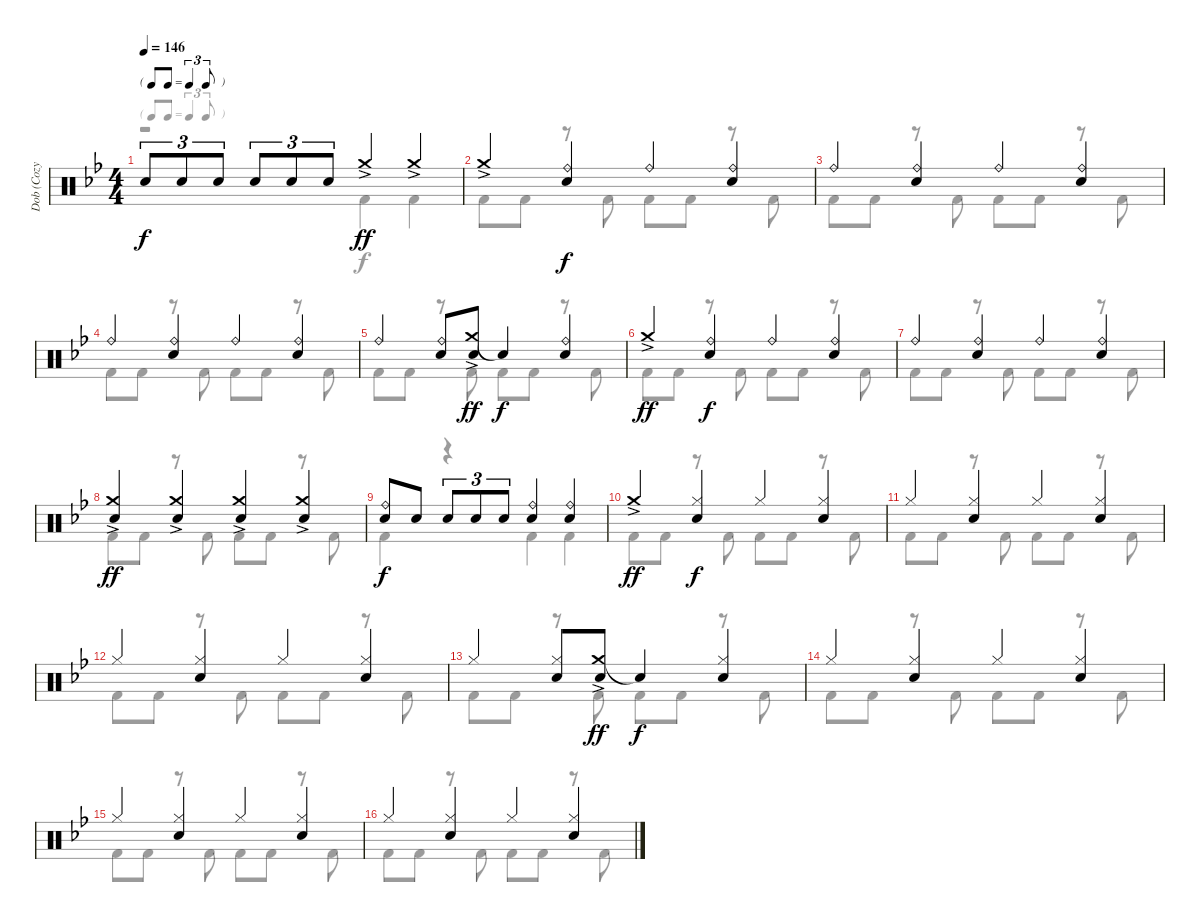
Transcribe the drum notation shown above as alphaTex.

\track ("Dob (Cozy Powell)" "Dob (Cozy ") {instrument percussion}
\staff {score}
\articulation defaults
\voice
\ts (4 4)
\tf triplet8th
\tempo 146
\clef neutral
\ks bb "Electric Snare (hit)".8{tu (3 2) dy f} "Electric Snare (hit)".8{tu (3 2)} "Electric Snare (hit)".8{tu (3 2)} "Electric Snare (hit)".8{tu (3 2)} "Electric Snare (hit)".8{tu (3 2)} "Electric Snare (hit)".8{tu (3 2)} "Crash medium (hit)"{ac}.4{dy ff} "Crash medium (hit)"{ac}.4
|
"Crash medium (hit)"{ac}.4 ("Ride (bell)" "Electric Snare (hit)").4{dy f} "Ride (bell)".4 ("Ride (bell)" "Electric Snare (hit)").4 |
"Ride (bell)".4 ("Ride (bell)" "Electric Snare (hit)").4 "Ride (bell)".4 ("Ride (bell)" "Electric Snare (hit)").4 |
"Ride (bell)".4 ("Ride (bell)" "Electric Snare (hit)").4 "Ride (bell)".4 ("Ride (bell)" "Electric Snare (hit)").4 |
"Ride (bell)".4 ("Ride (bell)" "Electric Snare (hit)").8 ("Crash medium (hit)"{ac} "Electric Snare (hit)").8{dy ff} "Snare (hit)"{t}.4{dy f} ("Ride (bell)" "Electric Snare (hit)").4 |
"Crash medium (hit)"{ac}.4{dy ff} ("Ride (bell)" "Electric Snare (hit)").4{dy f} "Ride (bell)".4 ("Ride (bell)" "Electric Snare (hit)").4 |
"Ride (bell)".4 ("Ride (bell)" "Electric Snare (hit)").4 "Ride (bell)".4 ("Ride (bell)" "Electric Snare (hit)").4 |
("Crash medium (hit)"{ac} "Electric Snare (hit)").4{dy ff} ("Crash medium (hit)"{ac} "Electric Snare (hit)").4 ("Crash medium (hit)"{ac} "Electric Snare (hit)").4 ("Crash medium (hit)"{ac} "Electric Snare (hit)").4 |
("Ride (bell)" "Electric Snare (hit)").8{dy f} "Electric Snare (hit)".8 "Electric Snare (hit)".8{tu (3 2)} "Electric Snare (hit)".8{tu (3 2)} "Electric Snare (hit)".8{tu (3 2)} ("Ride (bell)" "Electric Snare (hit)").4 ("Ride (bell)" "Electric Snare (hit)").4 |
"Crash medium (hit)"{ac}.4{dy ff} ("Hi-Hat (closed)" "Electric Snare (hit)").4{dy f} "Hi-Hat (closed)".4 ("Hi-Hat (closed)" "Electric Snare (hit)").4 |
"Hi-Hat (closed)".4 ("Hi-Hat (closed)" "Electric Snare (hit)").4 "Hi-Hat (closed)".4 ("Hi-Hat (closed)" "Electric Snare (hit)").4 |
"Hi-Hat (closed)".4 ("Hi-Hat (closed)" "Electric Snare (hit)").4 "Hi-Hat (closed)".4 ("Hi-Hat (closed)" "Electric Snare (hit)").4 |
"Hi-Hat (closed)".4 ("Hi-Hat (closed)" "Electric Snare (hit)").8 ("Crash medium (hit)"{ac} "Electric Snare (hit)").8{dy ff} "Snare (hit)"{t}.4{dy f} ("Hi-Hat (closed)" "Electric Snare (hit)").4 |
"Hi-Hat (closed)".4 ("Hi-Hat (closed)" "Electric Snare (hit)").4 "Hi-Hat (closed)".4 ("Hi-Hat (closed)" "Electric Snare (hit)").4 |
"Hi-Hat (closed)".4 ("Hi-Hat (closed)" "Electric Snare (hit)").4 "Hi-Hat (closed)".4 ("Hi-Hat (closed)" "Electric Snare (hit)").4 |
"Hi-Hat (closed)".4 ("Hi-Hat (closed)" "Electric Snare (hit)").4 "Hi-Hat (closed)".4 ("Hi-Hat (closed)" "Electric Snare (hit)").4
\voice
\clef neutral
\ottava regular
\simile none
\ks bb
r.2{dy f} "Kick (hit) 2".4 "Kick (hit) 2".4 |
"Kick (hit) 2".8 "Kick (hit) 2".8 r.8 "Kick (hit) 2".8 "Kick (hit) 2".8 "Kick (hit) 2".8 r.8 "Kick (hit) 2".8 |
"Kick (hit) 2".8 "Kick (hit) 2".8 r.8 "Kick (hit) 2".8 "Kick (hit) 2".8 "Kick (hit) 2".8 r.8 "Kick (hit) 2".8 |
"Kick (hit) 2".8 "Kick (hit) 2".8 r.8 "Kick (hit) 2".8 "Kick (hit) 2".8 "Kick (hit) 2".8 r.8 "Kick (hit) 2".8 |
"Kick (hit) 2".8 "Kick (hit) 2".8 r.8 "Kick (hit) 2".8 "Kick (hit) 2".8 "Kick (hit) 2".8 r.8 "Kick (hit) 2".8 |
"Kick (hit) 2".8 "Kick (hit) 2".8 r.8 "Kick (hit) 2".8 "Kick (hit) 2".8 "Kick (hit) 2".8 r.8 "Kick (hit) 2".8 |
"Kick (hit) 2".8 "Kick (hit) 2".8 r.8 "Kick (hit) 2".8 "Kick (hit) 2".8 "Kick (hit) 2".8 r.8 "Kick (hit) 2".8 |
"Kick (hit) 2".8 "Kick (hit) 2".8 r.8 "Kick (hit) 2".8 "Kick (hit) 2".8 "Kick (hit) 2".8 r.8 "Kick (hit) 2".8 |
"Kick (hit) 2".4 r.4 "Kick (hit) 2".4 "Kick (hit) 2".4 |
"Kick (hit) 2".8 "Kick (hit) 2".8 r.8 "Kick (hit) 2".8 "Kick (hit) 2".8 "Kick (hit) 2".8 r.8 "Kick (hit) 2".8 |
"Kick (hit) 2".8 "Kick (hit) 2".8 r.8 "Kick (hit) 2".8 "Kick (hit) 2".8 "Kick (hit) 2".8 r.8 "Kick (hit) 2".8 |
"Kick (hit) 2".8 "Kick (hit) 2".8 r.8 "Kick (hit) 2".8 "Kick (hit) 2".8 "Kick (hit) 2".8 r.8 "Kick (hit) 2".8 |
"Kick (hit) 2".8 "Kick (hit) 2".8 r.8 "Kick (hit) 2".8 "Kick (hit) 2".8 "Kick (hit) 2".8 r.8 "Kick (hit) 2".8 |
"Kick (hit) 2".8 "Kick (hit) 2".8 r.8 "Kick (hit) 2".8 "Kick (hit) 2".8 "Kick (hit) 2".8 r.8 "Kick (hit) 2".8 |
"Kick (hit) 2".8 "Kick (hit) 2".8 r.8 "Kick (hit) 2".8 "Kick (hit) 2".8 "Kick (hit) 2".8 r.8 "Kick (hit) 2".8 |
"Kick (hit) 2".8 "Kick (hit) 2".8 r.8 "Kick (hit) 2".8 "Kick (hit) 2".8 "Kick (hit) 2".8 r.8 "Kick (hit) 2".8
